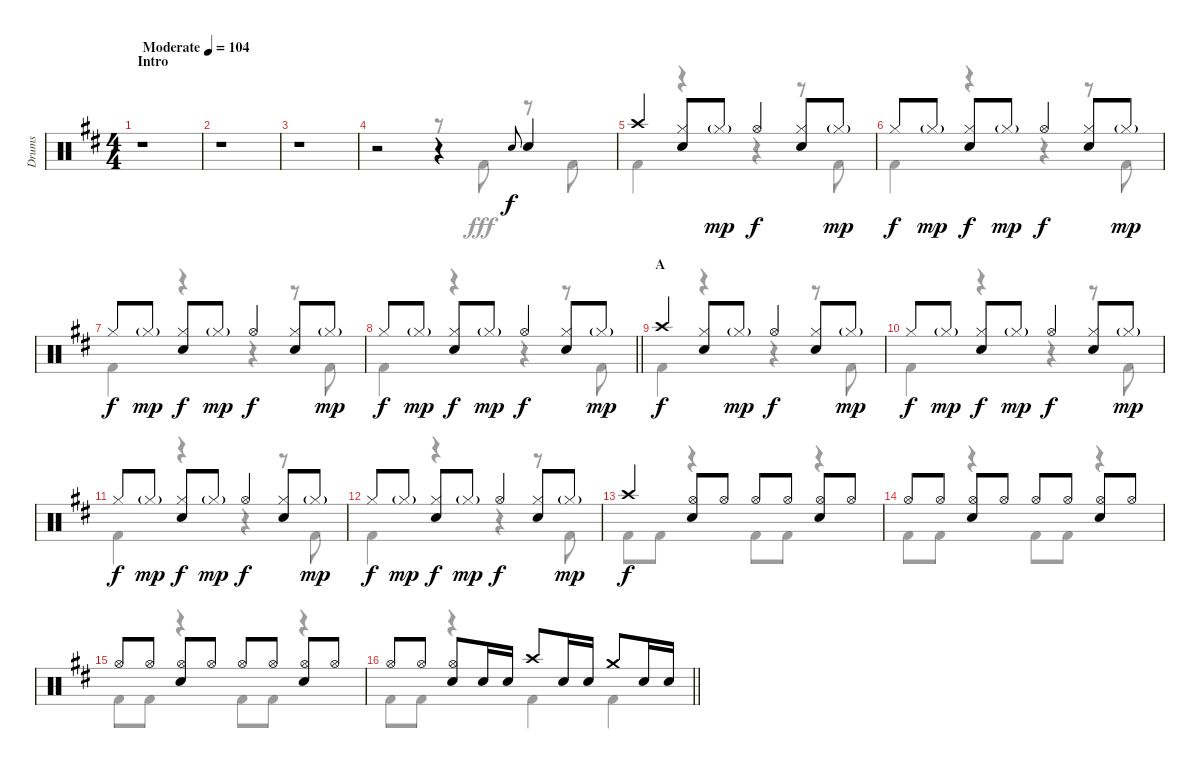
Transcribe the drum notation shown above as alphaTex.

\track ("Drums" "Drums") {instrument percussion}
\staff {score}
\articulation defaults
\voice
\ts (4 4)
\section ("" "Intro")
\tempo (104 "Moderate")
\clef neutral
\ks d
r.1{dy f} |
r.1 |
r.1 |
r.2 r.4 "Snare (hit) 2".8{gr onbeat} "Snare (hit) 2".4 |
"Crash high (hit)".4 ("Hi-Hat (closed)" "Snare (hit) 2").8 "Hi-Hat (closed)"{g}.8{dy mp} "Hi-Hat (open)".4{dy f} ("Hi-Hat (closed)" "Snare (hit) 2").8 "Hi-Hat (closed)"{g}.8{dy mp} |
"Hi-Hat (closed)".8{dy f} "Hi-Hat (closed)"{g}.8{dy mp} ("Hi-Hat (closed)" "Snare (hit) 2").8{dy f} "Hi-Hat (closed)"{g}.8{dy mp} "Hi-Hat (open)".4{dy f} ("Hi-Hat (closed)" "Snare (hit) 2").8 "Hi-Hat (closed)"{g}.8{dy mp} |
"Hi-Hat (closed)".8{dy f} "Hi-Hat (closed)"{g}.8{dy mp} ("Hi-Hat (closed)" "Snare (hit) 2").8{dy f} "Hi-Hat (closed)"{g}.8{dy mp} "Hi-Hat (open)".4{dy f} ("Hi-Hat (closed)" "Snare (hit) 2").8 "Hi-Hat (closed)"{g}.8{dy mp} |
\barLineRight lightlight "Hi-Hat (closed)".8{dy f} "Hi-Hat (closed)"{g}.8{dy mp}
("Hi-Hat (closed)" "Snare (hit) 2").8{dy f} "Hi-Hat (closed)"{g}.8{dy mp} "Hi-Hat (open)".4{dy f} ("Hi-Hat (closed)" "Snare (hit) 2").8 "Hi-Hat (closed)"{g}.8{dy mp} |
\section ("" "A")
"Crash high (hit)".4{dy f} ("Hi-Hat (closed)" "Snare (hit) 2").8 "Hi-Hat (closed)"{g}.8{dy mp} "Hi-Hat (open)".4{dy f} ("Hi-Hat (closed)" "Snare (hit) 2").8 "Hi-Hat (closed)"{g}.8{dy mp} |
"Hi-Hat (closed)".8{dy f} "Hi-Hat (closed)"{g}.8{dy mp} ("Hi-Hat (closed)" "Snare (hit) 2").8{dy f} "Hi-Hat (closed)"{g}.8{dy mp} "Hi-Hat (open)".4{dy f} ("Hi-Hat (closed)" "Snare (hit) 2").8 "Hi-Hat (closed)"{g}.8{dy mp} |
"Hi-Hat (closed)".8{dy f} "Hi-Hat (closed)"{g}.8{dy mp} ("Hi-Hat (closed)" "Snare (hit) 2").8{dy f} "Hi-Hat (closed)"{g}.8{dy mp} "Hi-Hat (open)".4{dy f} ("Hi-Hat (closed)" "Snare (hit) 2").8 "Hi-Hat (closed)"{g}.8{dy mp} |
"Hi-Hat (closed)".8{dy f} "Hi-Hat (closed)"{g}.8{dy mp} ("Hi-Hat (closed)" "Snare (hit) 2").8{dy f} "Hi-Hat (closed)"{g}.8{dy mp} "Hi-Hat (open)".4{dy f} ("Hi-Hat (closed)" "Snare (hit) 2").8 "Hi-Hat (closed)"{g}.8{dy mp} |
"Crash high (hit)".4{dy f} ("Hi-Hat (open)" "Snare (hit) 2").8 "Hi-Hat (open)".8 "Hi-Hat (open)".8 "Hi-Hat (open)".8 ("Hi-Hat (open)" "Snare (hit) 2").8 "Hi-Hat (open)".8 |
"Hi-Hat (open)".8 "Hi-Hat (open)".8 ("Hi-Hat (open)" "Snare (hit) 2").8 "Hi-Hat (open)".8 "Hi-Hat (open)".8 "Hi-Hat (open)".8 ("Hi-Hat (open)" "Snare (hit) 2").8 "Hi-Hat (open)".8 |
"Hi-Hat (open)".8 "Hi-Hat (open)".8 ("Hi-Hat (open)" "Snare (hit) 2").8 "Hi-Hat (open)".8 "Hi-Hat (open)".8 "Hi-Hat (open)".8 ("Hi-Hat (open)" "Snare (hit) 2").8 "Hi-Hat (open)".8 |
\barLineRight lightlight "Hi-Hat (open)".8 "Hi-Hat (open)".8
("Hi-Hat (open)" "Snare (hit) 2").8 "Snare (hit) 2".16 "Snare (hit) 2".16 "Crash high (hit)".8 "Snare (hit) 2".16 "Snare (hit) 2".16 "Crash medium (hit)".8 "Snare (hit) 2".16 "Snare (hit) 2".16
\voice
\clef neutral
\ottava regular
\simile none
\ks d
r.1{dy fff} |
r.1 |
r.1 |
r.2 r.8 "Kick (hit) 2".8 r.8 "Kick (hit) 2".8 |
"Kick (hit) 2".4 r.4 r.4 r.8 "Kick (hit) 2".8 |
"Kick (hit) 2".4 r.4 r.4 r.8 "Kick (hit) 2".8 |
"Kick (hit) 2".4 r.4 r.4 r.8 "Kick (hit) 2".8 |
\barLineRight lightlight "Kick (hit) 2".4
r.4 r.4 r.8 "Kick (hit) 2".8 |
"Kick (hit) 2".4 r.4 r.4 r.8 "Kick (hit) 2".8 |
"Kick (hit) 2".4 r.4 r.4 r.8 "Kick (hit) 2".8 |
"Kick (hit) 2".4 r.4 r.4 r.8 "Kick (hit) 2".8 |
"Kick (hit) 2".4 r.4 r.4 r.8 "Kick (hit) 2".8 |
"Kick (hit) 2".8 "Kick (hit) 2".8 r.4 "Kick (hit) 2".8 "Kick (hit) 2".8 r.4 |
"Kick (hit) 2".8 "Kick (hit) 2".8 r.4 "Kick (hit) 2".8 "Kick (hit) 2".8 r.4 |
"Kick (hit) 2".8 "Kick (hit) 2".8 r.4 "Kick (hit) 2".8 "Kick (hit) 2".8 r.4 |
\barLineRight lightlight "Kick (hit) 2".8 "Kick (hit) 2".8
r.4 "Kick (hit) 2".4 "Kick (hit) 2".4
